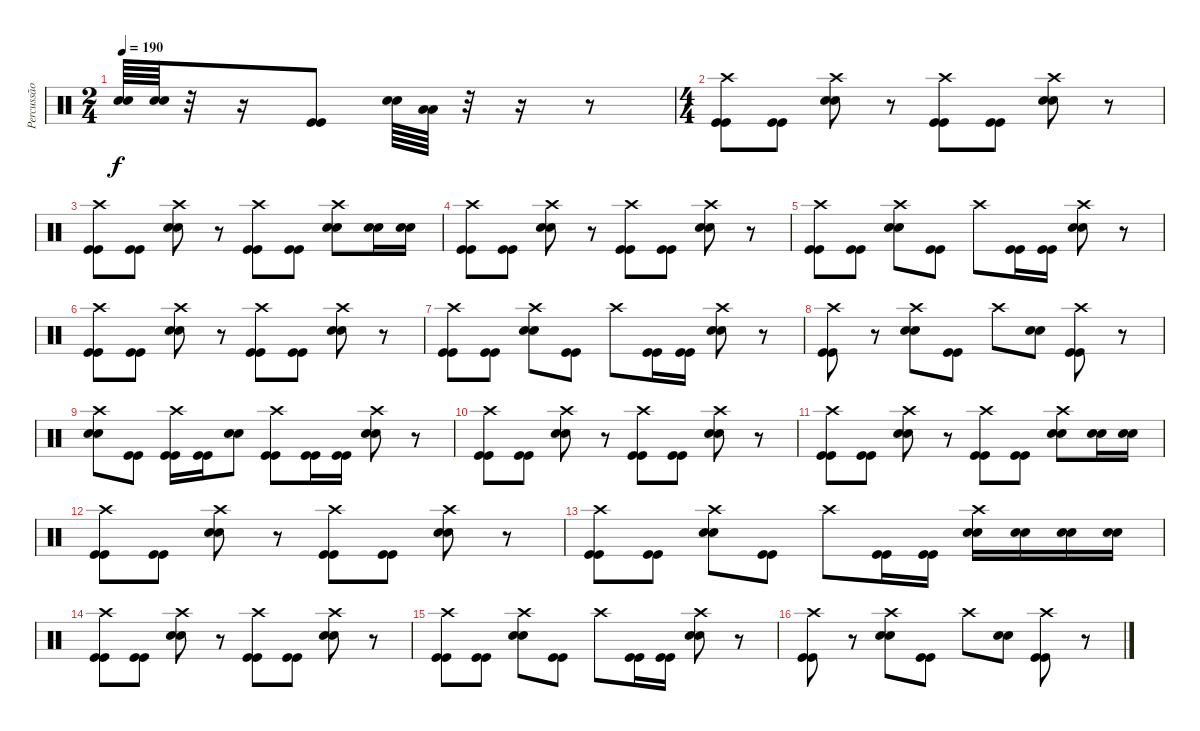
\track ("Percussão" "Percussão") {instrument percussion}
\staff {score}
\articulation defaults
\ts (2 4)
\tempo 190
\clef neutral
\ks c
("Snare (hit) 2" "Snare (hit) 2").64{dy f} ("Snare (hit) 2" "Snare (hit) 2").64 r.32 r.16 ("Kick (hit)" "Kick (hit)").8 ("Snare (hit) 2" "Snare (hit) 2").64 ("Low Floor Tom (hit)" "Low Floor Tom (hit)").64 r.32 r.16 r.8 |
\ts (4 4)
("Crash high (hit)" "Kick (hit)" "Kick (hit)").8 ("Kick (hit)" "Kick (hit)").8 ("Crash high (hit)" "Snare (hit) 2" "Snare (hit) 2").8 r.8 ("Crash high (hit)" "Kick (hit)" "Kick (hit)").8 ("Kick (hit)" "Kick (hit)").8 ("Crash high (hit)" "Snare (hit) 2" "Snare (hit) 2").8 r.8 |
("Crash high (hit)" "Kick (hit)" "Kick (hit)").8 ("Kick (hit)" "Kick (hit)").8 ("Crash high (hit)" "Snare (hit) 2" "Snare (hit) 2").8 r.8 ("Crash high (hit)" "Kick (hit)" "Kick (hit)").8 ("Kick (hit)" "Kick (hit)").8 ("Crash high (hit)" "Snare (hit) 2" "Snare (hit) 2").8 ("Snare (hit) 2" "Snare (hit) 2").16 ("Snare (hit) 2" "Snare (hit) 2").16 |
("Crash high (hit)" "Kick (hit)" "Kick (hit)").8 ("Kick (hit)" "Kick (hit)").8 ("Crash high (hit)" "Snare (hit) 2" "Snare (hit) 2").8 r.8 ("Crash high (hit)" "Kick (hit)" "Kick (hit)").8 ("Kick (hit)" "Kick (hit)").8 ("Crash high (hit)" "Snare (hit) 2" "Snare (hit) 2").8 r.8 |
("Crash high (hit)" "Kick (hit)" "Kick (hit)").8 ("Kick (hit)" "Kick (hit)").8 ("Crash high (hit)" "Snare (hit) 2" "Snare (hit) 2").8 ("Kick (hit)" "Kick (hit)").8 "Crash high (hit)".8 ("Kick (hit)" "Kick (hit)").16 ("Kick (hit)" "Kick (hit)").16 ("Crash high (hit)" "Snare (hit) 2" "Snare (hit) 2").8 r.8 |
("Crash high (hit)" "Kick (hit)" "Kick (hit)").8 ("Kick (hit)" "Kick (hit)").8 ("Crash high (hit)" "Snare (hit) 2" "Snare (hit) 2").8 r.8 ("Crash high (hit)" "Kick (hit)" "Kick (hit)").8 ("Kick (hit)" "Kick (hit)").8 ("Crash high (hit)" "Snare (hit) 2" "Snare (hit) 2").8 r.8 |
("Crash high (hit)" "Kick (hit)" "Kick (hit)").8 ("Kick (hit)" "Kick (hit)").8 ("Crash high (hit)" "Snare (hit) 2" "Snare (hit) 2").8 ("Kick (hit)" "Kick (hit)").8 "Crash high (hit)".8 ("Kick (hit)" "Kick (hit)").16 ("Kick (hit)" "Kick (hit)").16 ("Crash high (hit)" "Snare (hit) 2" "Snare (hit) 2").8 r.8 |
("Crash high (hit)" "Kick (hit)" "Kick (hit)").8 r.8 ("Crash high (hit)" "Snare (hit) 2" "Snare (hit) 2").8 ("Kick (hit)" "Kick (hit)").8 "Crash high (hit)".8 ("Snare (hit) 2" "Snare (hit) 2").8 ("Crash high (hit)" "Kick (hit)" "Kick (hit)").8 r.8 |
("Crash high (hit)" "Snare (hit) 2" "Snare (hit) 2").8 ("Kick (hit)" "Kick (hit)").8 ("Crash high (hit)" "Kick (hit)" "Kick (hit)").16 ("Kick (hit)" "Kick (hit)").16 ("Snare (hit) 2" "Snare (hit) 2").8 ("Crash high (hit)" "Kick (hit)" "Kick (hit)").8 ("Kick (hit)" "Kick (hit)").16 ("Kick (hit)" "Kick (hit)").16 ("Crash high (hit)" "Snare (hit) 2" "Snare (hit) 2").8 r.8 |
("Crash high (hit)" "Kick (hit)" "Kick (hit)").8 ("Kick (hit)" "Kick (hit)").8 ("Crash high (hit)" "Snare (hit) 2" "Snare (hit) 2").8 r.8 ("Crash high (hit)" "Kick (hit)" "Kick (hit)").8 ("Kick (hit)" "Kick (hit)").8 ("Crash high (hit)" "Snare (hit) 2" "Snare (hit) 2").8 r.8 |
("Crash high (hit)" "Kick (hit)" "Kick (hit)").8 ("Kick (hit)" "Kick (hit)").8 ("Crash high (hit)" "Snare (hit) 2" "Snare (hit) 2").8 r.8 ("Crash high (hit)" "Kick (hit)" "Kick (hit)").8 ("Kick (hit)" "Kick (hit)").8 ("Crash high (hit)" "Snare (hit) 2" "Snare (hit) 2").8 ("Snare (hit) 2" "Snare (hit) 2").16 ("Snare (hit) 2" "Snare (hit) 2").16 |
("Crash high (hit)" "Kick (hit)" "Kick (hit)").8 ("Kick (hit)" "Kick (hit)").8 ("Crash high (hit)" "Snare (hit) 2" "Snare (hit) 2").8 r.8 ("Crash high (hit)" "Kick (hit)" "Kick (hit)").8 ("Kick (hit)" "Kick (hit)").8 ("Crash high (hit)" "Snare (hit) 2" "Snare (hit) 2").8 r.8 |
("Crash high (hit)" "Kick (hit)" "Kick (hit)").8 ("Kick (hit)" "Kick (hit)").8 ("Crash high (hit)" "Snare (hit) 2" "Snare (hit) 2").8 ("Kick (hit)" "Kick (hit)").8 "Crash high (hit)".8 ("Kick (hit)" "Kick (hit)").16 ("Kick (hit)" "Kick (hit)").16 ("Crash high (hit)" "Snare (hit) 2" "Snare (hit) 2").16 ("Snare (hit) 2" "Snare (hit) 2").16 ("Snare (hit) 2" "Snare (hit) 2").16 ("Snare (hit) 2" "Snare (hit) 2").16 |
("Crash high (hit)" "Kick (hit)" "Kick (hit)").8 ("Kick (hit)" "Kick (hit)").8 ("Crash high (hit)" "Snare (hit) 2" "Snare (hit) 2").8 r.8 ("Crash high (hit)" "Kick (hit)" "Kick (hit)").8 ("Kick (hit)" "Kick (hit)").8 ("Crash high (hit)" "Snare (hit) 2" "Snare (hit) 2").8 r.8 |
("Crash high (hit)" "Kick (hit)" "Kick (hit)").8 ("Kick (hit)" "Kick (hit)").8 ("Crash high (hit)" "Snare (hit) 2" "Snare (hit) 2").8 ("Kick (hit)" "Kick (hit)").8 "Crash high (hit)".8 ("Kick (hit)" "Kick (hit)").16 ("Kick (hit)" "Kick (hit)").16 ("Crash high (hit)" "Snare (hit) 2" "Snare (hit) 2").8 r.8 |
("Crash high (hit)" "Kick (hit)" "Kick (hit)").8 r.8 ("Crash high (hit)" "Snare (hit) 2" "Snare (hit) 2").8 ("Kick (hit)" "Kick (hit)").8 "Crash high (hit)".8 ("Snare (hit) 2" "Snare (hit) 2").8 ("Crash high (hit)" "Kick (hit)" "Kick (hit)").8 r.8
